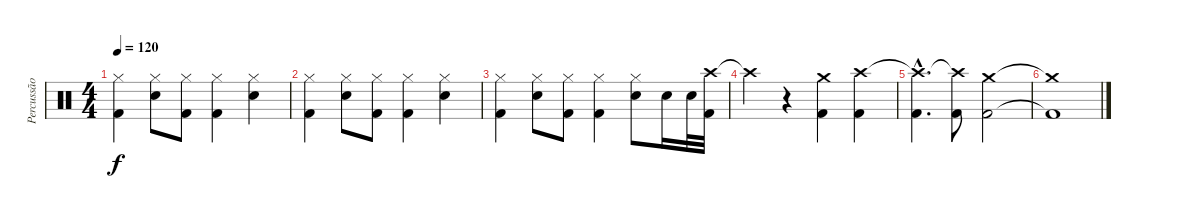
\track ("Percussão" "Percussão") {instrument percussion}
\staff {score}
\articulation defaults
\ts (4 4)
\tempo 120
\clef neutral
\ks c
("Kick (hit) 2" "Hi-Hat (closed)").4{dy f} ("Snare (hit) 2" "Hi-Hat (closed)").8 ("Kick (hit) 2" "Hi-Hat (closed)").8 ("Kick (hit) 2" "Hi-Hat (closed)").4 ("Snare (hit) 2" "Hi-Hat (closed)").4 |
("Kick (hit) 2" "Hi-Hat (closed)").4 ("Snare (hit) 2" "Hi-Hat (closed)").8 ("Kick (hit) 2" "Hi-Hat (closed)").8 ("Kick (hit) 2" "Hi-Hat (closed)").4 ("Snare (hit) 2" "Hi-Hat (closed)").4 |
("Kick (hit) 2" "Hi-Hat (closed)").4 ("Snare (hit) 2" "Hi-Hat (closed)").8 ("Kick (hit) 2" "Hi-Hat (closed)").8 ("Kick (hit) 2" "Hi-Hat (closed)").4 ("Snare (hit) 2" "Hi-Hat (closed)").8 "Snare (hit) 2".16 "Snare (hit) 2".32 ("Crash high (hit)" "Kick (hit) 2").32 |
"Crash high (hit)"{t}.4 r.4 ("Crash medium (hit)" "Kick (hit) 2").4 ("Crash high (hit)" "Kick (hit) 2").4 |
("Crash high (hit)"{hac t} "Kick (hit) 2"{hac}).4{d} ("Crash high (hit)"{t} "Kick (hit) 2").8 ("Crash medium (hit)" "Kick (hit) 2").2 |
("Crash medium (hit)"{t} "Kick (hit) 2"{t}).1
